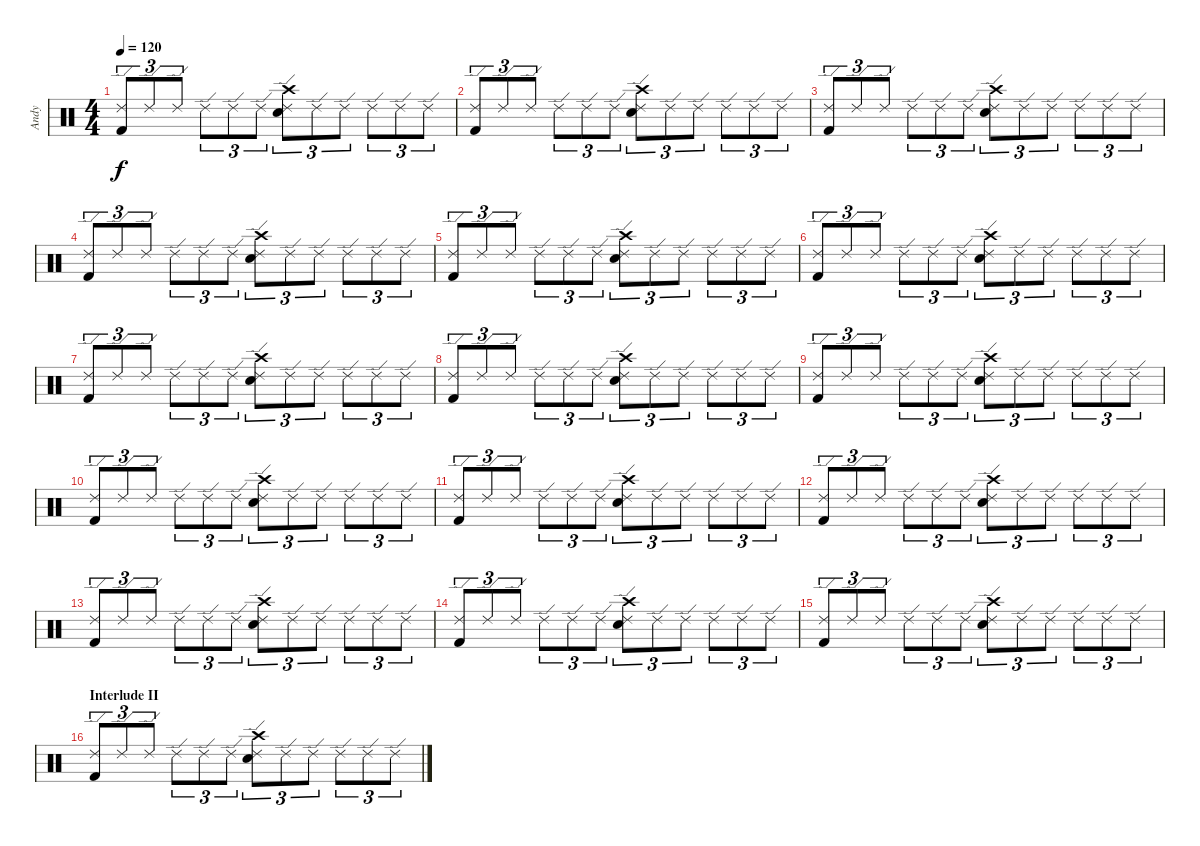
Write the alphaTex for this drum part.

\track ("Andy" "Andy") {instrument percussion}
\staff {score}
\articulation defaults
\ts (4 4)
\tempo 120
\clef neutral
\ks c
("Ride (edge) 2" "Kick (hit) 2").8{tu (3 2) dy f} "Ride (edge) 2".8{tu (3 2)} "Ride (edge) 2".8{tu (3 2)} "Ride (edge) 2".8{tu (3 2)} "Ride (edge) 2".8{tu (3 2)} "Ride (edge) 2".8{tu (3 2)} ("Crash high (hit)" "Ride (edge) 2" "Snare (hit) 2").8{tu (3 2)} "Ride (edge) 2".8{tu (3 2)} "Ride (edge) 2".8{tu (3 2)} "Ride (edge) 2".8{tu (3 2)} "Ride (edge) 2".8{tu (3 2)} "Ride (edge) 2".8{tu (3 2)} |
("Ride (edge) 2" "Kick (hit) 2").8{tu (3 2)} "Ride (edge) 2".8{tu (3 2)} "Ride (edge) 2".8{tu (3 2)} "Ride (edge) 2".8{tu (3 2)} "Ride (edge) 2".8{tu (3 2)} "Ride (edge) 2".8{tu (3 2)} ("Crash high (hit)" "Ride (edge) 2" "Snare (hit) 2").8{tu (3 2)} "Ride (edge) 2".8{tu (3 2)} "Ride (edge) 2".8{tu (3 2)} "Ride (edge) 2".8{tu (3 2)} "Ride (edge) 2".8{tu (3 2)} "Ride (edge) 2".8{tu (3 2)} |
("Ride (edge) 2" "Kick (hit) 2").8{tu (3 2)} "Ride (edge) 2".8{tu (3 2)} "Ride (edge) 2".8{tu (3 2)} "Ride (edge) 2".8{tu (3 2)} "Ride (edge) 2".8{tu (3 2)} "Ride (edge) 2".8{tu (3 2)} ("Crash high (hit)" "Ride (edge) 2" "Snare (hit) 2").8{tu (3 2)} "Ride (edge) 2".8{tu (3 2)} "Ride (edge) 2".8{tu (3 2)} "Ride (edge) 2".8{tu (3 2)} "Ride (edge) 2".8{tu (3 2)} "Ride (edge) 2".8{tu (3 2)} |
("Ride (edge) 2" "Kick (hit) 2").8{tu (3 2)} "Ride (edge) 2".8{tu (3 2)} "Ride (edge) 2".8{tu (3 2)} "Ride (edge) 2".8{tu (3 2)} "Ride (edge) 2".8{tu (3 2)} "Ride (edge) 2".8{tu (3 2)} ("Crash high (hit)" "Ride (edge) 2" "Snare (hit) 2").8{tu (3 2)} "Ride (edge) 2".8{tu (3 2)} "Ride (edge) 2".8{tu (3 2)} "Ride (edge) 2".8{tu (3 2)} "Ride (edge) 2".8{tu (3 2)} "Ride (edge) 2".8{tu (3 2)} |
("Ride (edge) 2" "Kick (hit) 2").8{tu (3 2)} "Ride (edge) 2".8{tu (3 2)} "Ride (edge) 2".8{tu (3 2)} "Ride (edge) 2".8{tu (3 2)} "Ride (edge) 2".8{tu (3 2)} "Ride (edge) 2".8{tu (3 2)} ("Crash high (hit)" "Ride (edge) 2" "Snare (hit) 2").8{tu (3 2)} "Ride (edge) 2".8{tu (3 2)} "Ride (edge) 2".8{tu (3 2)} "Ride (edge) 2".8{tu (3 2)} "Ride (edge) 2".8{tu (3 2)} "Ride (edge) 2".8{tu (3 2)} |
("Ride (edge) 2" "Kick (hit) 2").8{tu (3 2)} "Ride (edge) 2".8{tu (3 2)} "Ride (edge) 2".8{tu (3 2)} "Ride (edge) 2".8{tu (3 2)} "Ride (edge) 2".8{tu (3 2)} "Ride (edge) 2".8{tu (3 2)} ("Crash high (hit)" "Ride (edge) 2" "Snare (hit) 2").8{tu (3 2)} "Ride (edge) 2".8{tu (3 2)} "Ride (edge) 2".8{tu (3 2)} "Ride (edge) 2".8{tu (3 2)} "Ride (edge) 2".8{tu (3 2)} "Ride (edge) 2".8{tu (3 2)} |
("Ride (edge) 2" "Kick (hit) 2").8{tu (3 2)} "Ride (edge) 2".8{tu (3 2)} "Ride (edge) 2".8{tu (3 2)} "Ride (edge) 2".8{tu (3 2)} "Ride (edge) 2".8{tu (3 2)} "Ride (edge) 2".8{tu (3 2)} ("Crash high (hit)" "Ride (edge) 2" "Snare (hit) 2").8{tu (3 2)} "Ride (edge) 2".8{tu (3 2)} "Ride (edge) 2".8{tu (3 2)} "Ride (edge) 2".8{tu (3 2)} "Ride (edge) 2".8{tu (3 2)} "Ride (edge) 2".8{tu (3 2)} |
("Ride (edge) 2" "Kick (hit) 2").8{tu (3 2)} "Ride (edge) 2".8{tu (3 2)} "Ride (edge) 2".8{tu (3 2)} "Ride (edge) 2".8{tu (3 2)} "Ride (edge) 2".8{tu (3 2)} "Ride (edge) 2".8{tu (3 2)} ("Crash high (hit)" "Ride (edge) 2" "Snare (hit) 2").8{tu (3 2)} "Ride (edge) 2".8{tu (3 2)} "Ride (edge) 2".8{tu (3 2)} "Ride (edge) 2".8{tu (3 2)} "Ride (edge) 2".8{tu (3 2)} "Ride (edge) 2".8{tu (3 2)} |
("Ride (edge) 2" "Kick (hit) 2").8{tu (3 2)} "Ride (edge) 2".8{tu (3 2)} "Ride (edge) 2".8{tu (3 2)} "Ride (edge) 2".8{tu (3 2)} "Ride (edge) 2".8{tu (3 2)} "Ride (edge) 2".8{tu (3 2)} ("Crash high (hit)" "Ride (edge) 2" "Snare (hit) 2").8{tu (3 2)} "Ride (edge) 2".8{tu (3 2)} "Ride (edge) 2".8{tu (3 2)} "Ride (edge) 2".8{tu (3 2)} "Ride (edge) 2".8{tu (3 2)} "Ride (edge) 2".8{tu (3 2)} |
("Ride (edge) 2" "Kick (hit) 2").8{tu (3 2)} "Ride (edge) 2".8{tu (3 2)} "Ride (edge) 2".8{tu (3 2)} "Ride (edge) 2".8{tu (3 2)} "Ride (edge) 2".8{tu (3 2)} "Ride (edge) 2".8{tu (3 2)} ("Crash high (hit)" "Ride (edge) 2" "Snare (hit) 2").8{tu (3 2)} "Ride (edge) 2".8{tu (3 2)} "Ride (edge) 2".8{tu (3 2)} "Ride (edge) 2".8{tu (3 2)} "Ride (edge) 2".8{tu (3 2)} "Ride (edge) 2".8{tu (3 2)} |
("Ride (edge) 2" "Kick (hit) 2").8{tu (3 2)} "Ride (edge) 2".8{tu (3 2)} "Ride (edge) 2".8{tu (3 2)} "Ride (edge) 2".8{tu (3 2)} "Ride (edge) 2".8{tu (3 2)} "Ride (edge) 2".8{tu (3 2)} ("Crash high (hit)" "Ride (edge) 2" "Snare (hit) 2").8{tu (3 2)} "Ride (edge) 2".8{tu (3 2)} "Ride (edge) 2".8{tu (3 2)} "Ride (edge) 2".8{tu (3 2)} "Ride (edge) 2".8{tu (3 2)} "Ride (edge) 2".8{tu (3 2)} |
("Ride (edge) 2" "Kick (hit) 2").8{tu (3 2)} "Ride (edge) 2".8{tu (3 2)} "Ride (edge) 2".8{tu (3 2)} "Ride (edge) 2".8{tu (3 2)} "Ride (edge) 2".8{tu (3 2)} "Ride (edge) 2".8{tu (3 2)} ("Crash high (hit)" "Ride (edge) 2" "Snare (hit) 2").8{tu (3 2)} "Ride (edge) 2".8{tu (3 2)} "Ride (edge) 2".8{tu (3 2)} "Ride (edge) 2".8{tu (3 2)} "Ride (edge) 2".8{tu (3 2)} "Ride (edge) 2".8{tu (3 2)} |
("Ride (edge) 2" "Kick (hit) 2").8{tu (3 2)} "Ride (edge) 2".8{tu (3 2)} "Ride (edge) 2".8{tu (3 2)} "Ride (edge) 2".8{tu (3 2)} "Ride (edge) 2".8{tu (3 2)} "Ride (edge) 2".8{tu (3 2)} ("Crash high (hit)" "Ride (edge) 2" "Snare (hit) 2").8{tu (3 2)} "Ride (edge) 2".8{tu (3 2)} "Ride (edge) 2".8{tu (3 2)} "Ride (edge) 2".8{tu (3 2)} "Ride (edge) 2".8{tu (3 2)} "Ride (edge) 2".8{tu (3 2)} |
("Ride (edge) 2" "Kick (hit) 2").8{tu (3 2)} "Ride (edge) 2".8{tu (3 2)} "Ride (edge) 2".8{tu (3 2)} "Ride (edge) 2".8{tu (3 2)} "Ride (edge) 2".8{tu (3 2)} "Ride (edge) 2".8{tu (3 2)} ("Crash high (hit)" "Ride (edge) 2" "Snare (hit) 2").8{tu (3 2)} "Ride (edge) 2".8{tu (3 2)} "Ride (edge) 2".8{tu (3 2)} "Ride (edge) 2".8{tu (3 2)} "Ride (edge) 2".8{tu (3 2)} "Ride (edge) 2".8{tu (3 2)} |
("Ride (edge) 2" "Kick (hit) 2").8{tu (3 2)} "Ride (edge) 2".8{tu (3 2)} "Ride (edge) 2".8{tu (3 2)} "Ride (edge) 2".8{tu (3 2)} "Ride (edge) 2".8{tu (3 2)} "Ride (edge) 2".8{tu (3 2)} ("Crash high (hit)" "Ride (edge) 2" "Snare (hit) 2").8{tu (3 2)} "Ride (edge) 2".8{tu (3 2)} "Ride (edge) 2".8{tu (3 2)} "Ride (edge) 2".8{tu (3 2)} "Ride (edge) 2".8{tu (3 2)} "Ride (edge) 2".8{tu (3 2)} |
\section ("" "Interlude II")
("Ride (edge) 2" "Kick (hit) 2").8{tu (3 2)} "Ride (edge) 2".8{tu (3 2)} "Ride (edge) 2".8{tu (3 2)} "Ride (edge) 2".8{tu (3 2)} "Ride (edge) 2".8{tu (3 2)} "Ride (edge) 2".8{tu (3 2)} ("Crash high (hit)" "Ride (edge) 2" "Snare (hit) 2").8{tu (3 2)} "Ride (edge) 2".8{tu (3 2)} "Ride (edge) 2".8{tu (3 2)} "Ride (edge) 2".8{tu (3 2)} "Ride (edge) 2".8{tu (3 2)} "Ride (edge) 2".8{tu (3 2)}
